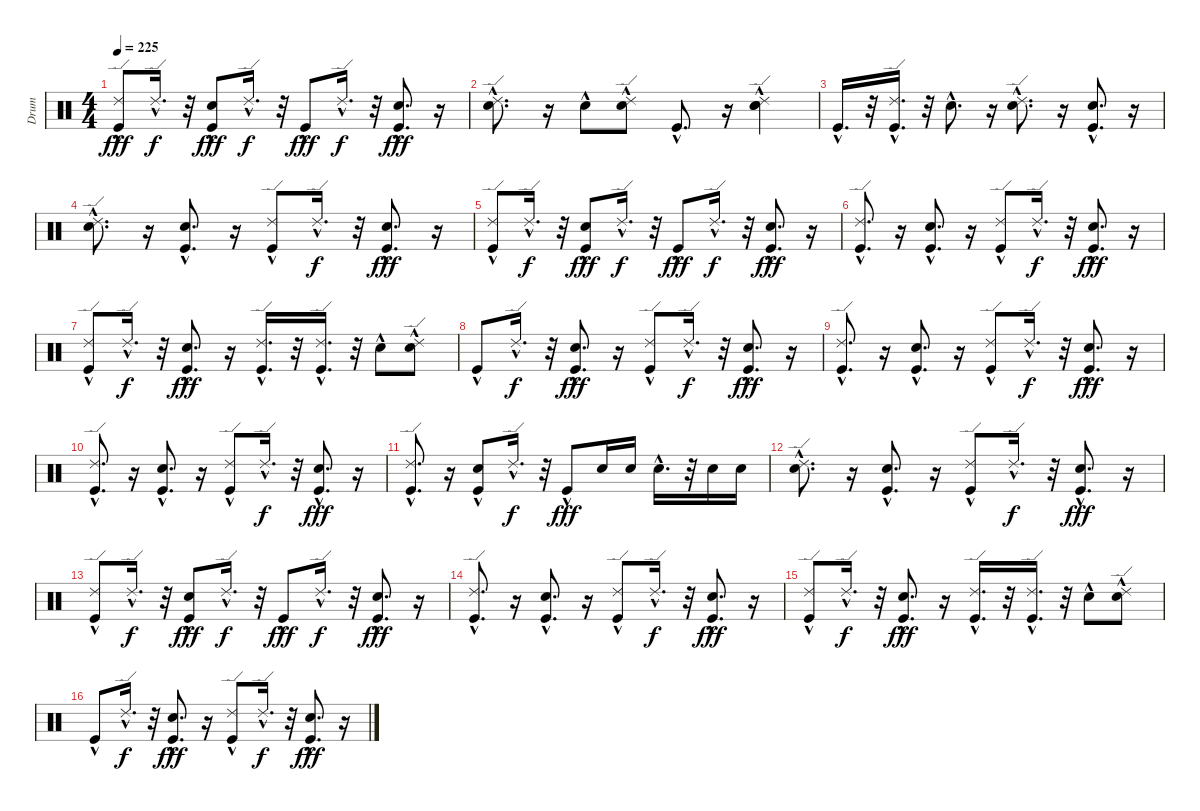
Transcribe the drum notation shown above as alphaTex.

\track ("Drum" "Drum") {instrument percussion}
\staff {score}
\articulation defaults
\ts (4 4)
\tempo 225
\clef neutral
\ks c
("Kick (hit)"{hac} "Ride (edge) 2"{hac}).8{dy fff} "Ride (edge) 2"{hac}.16{d dy f} r.32 ("Kick (hit)"{hac} "Electric Snare (hit)"{hac}).8{dy fff} "Ride (edge) 2"{hac}.16{d dy f} r.32 "Kick (hit)"{hac}.8{dy fff} "Ride (edge) 2"{hac}.16{d dy f} r.32 ("Kick (hit)"{hac} "Electric Snare (hit)"{hac}).8{d dy fff} r.16 |
("Snare (hit) 2"{hac} "Ride (edge) 2"{hac}).8{d} r.16 "Electric Snare (hit)"{hac}.8 ("Snare (hit) 2" "Ride (edge) 2"{hac}).8 "Kick (hit)"{hac}.8{d} r.16 ("Snare (hit) 2" "Electric Snare (hit)"{hac} "Ride (edge) 2"{hac}).4 |
"Kick (hit)"{hac}.16{d} r.32 ("Kick (hit)"{hac} "Ride (edge) 2"{hac}).16{d} r.32 "Electric Snare (hit)"{hac}.8{d} r.16 ("Snare (hit) 2"{hac} "Ride (edge) 2"{hac}).8{d} r.16 ("Kick (hit)"{hac} "Electric Snare (hit)"{hac}).8{d} r.16 |
("Snare (hit) 2"{hac} "Ride (edge) 2"{hac}).8{d} r.16 ("Kick (hit)"{hac} "Electric Snare (hit)"{hac}).8{d} r.16 ("Kick (hit)"{hac} "Ride (edge) 2"{hac}).8 "Ride (edge) 2"{hac}.16{d dy f} r.32 ("Kick (hit)"{hac} "Electric Snare (hit)"{hac}).8{d dy fff} r.16 |
("Kick (hit)"{hac} "Ride (edge) 2"{hac}).8 "Ride (edge) 2"{hac}.16{d dy f} r.32 ("Kick (hit)"{hac} "Electric Snare (hit)"{hac}).8{dy fff} "Ride (edge) 2"{hac}.16{d dy f} r.32 "Kick (hit)"{hac}.8{dy fff} "Ride (edge) 2"{hac}.16{d dy f} r.32 ("Kick (hit)"{hac} "Electric Snare (hit)"{hac}).8{d dy fff} r.16 |
("Kick (hit)"{hac} "Ride (edge) 2"{hac}).8{d} r.16 ("Kick (hit)"{hac} "Electric Snare (hit)"{hac}).8{d} r.16 ("Kick (hit)"{hac} "Ride (edge) 2"{hac}).8 "Ride (edge) 2"{hac}.16{d dy f} r.32 ("Kick (hit)"{hac} "Electric Snare (hit)"{hac}).8{d dy fff} r.16 |
("Kick (hit)"{hac} "Ride (edge) 2"{hac}).8 "Ride (edge) 2"{hac}.16{d dy f} r.32 ("Kick (hit)"{hac} "Electric Snare (hit)"{hac}).8{d dy fff} r.16 ("Kick (hit)"{hac} "Ride (edge) 2"{hac}).16{d} r.32 ("Kick (hit)"{hac} "Ride (edge) 2"{hac}).16{d} r.32 "Electric Snare (hit)"{hac}.8 ("Snare (hit) 2" "Ride (edge) 2"{hac}).8 |
"Kick (hit)"{hac}.8 "Ride (edge) 2"{hac}.16{d dy f} r.32 ("Kick (hit)"{hac} "Electric Snare (hit)"{hac}).8{d dy fff} r.16 ("Kick (hit)"{hac} "Ride (edge) 2"{hac}).8 "Ride (edge) 2"{hac}.16{d dy f} r.32 ("Kick (hit)"{hac} "Electric Snare (hit)"{hac}).8{d dy fff} r.16 |
("Kick (hit)"{hac} "Ride (edge) 2"{hac}).8{d} r.16 ("Kick (hit)"{hac} "Electric Snare (hit)"{hac}).8{d} r.16 ("Kick (hit)"{hac} "Ride (edge) 2"{hac}).8 "Ride (edge) 2"{hac}.16{d dy f} r.32 ("Kick (hit)"{hac} "Electric Snare (hit)"{hac}).8{d dy fff} r.16 |
("Kick (hit)"{hac} "Ride (edge) 2"{hac}).8{d} r.16 ("Kick (hit)"{hac} "Electric Snare (hit)"{hac}).8{d} r.16 ("Kick (hit)"{hac} "Ride (edge) 2"{hac}).8 "Ride (edge) 2"{hac}.16{d dy f} r.32 ("Kick (hit)"{hac} "Electric Snare (hit)"{hac}).8{d dy fff} r.16 |
("Kick (hit)"{hac} "Ride (edge) 2"{hac}).8{d} r.16 ("Kick (hit)"{hac} "Electric Snare (hit)"{hac}).8 "Ride (edge) 2"{hac}.16{d dy f} r.32 "Kick (hit)"{hac}.8{dy fff} "Electric Snare (hit)".16 "Electric Snare (hit)".16 "Electric Snare (hit)"{hac}.16{d} r.32 "Electric Snare (hit)".16 "Electric Snare (hit)".16 |
("Snare (hit) 2"{hac} "Ride (edge) 2"{hac}).8{d} r.16 ("Kick (hit)"{hac} "Electric Snare (hit)"{hac}).8{d} r.16 ("Kick (hit)"{hac} "Ride (edge) 2"{hac}).8 "Ride (edge) 2"{hac}.16{d dy f} r.32 ("Kick (hit)"{hac} "Electric Snare (hit)"{hac}).8{d dy fff} r.16 |
("Kick (hit)"{hac} "Ride (edge) 2"{hac}).8 "Ride (edge) 2"{hac}.16{d dy f} r.32 ("Kick (hit)"{hac} "Electric Snare (hit)"{hac}).8{dy fff} "Ride (edge) 2"{hac}.16{d dy f} r.32 "Kick (hit)"{hac}.8{dy fff} "Ride (edge) 2"{hac}.16{d dy f} r.32 ("Kick (hit)"{hac} "Electric Snare (hit)"{hac}).8{d dy fff} r.16 |
("Kick (hit)"{hac} "Ride (edge) 2"{hac}).8{d} r.16 ("Kick (hit)"{hac} "Electric Snare (hit)"{hac}).8{d} r.16 ("Kick (hit)"{hac} "Ride (edge) 2"{hac}).8 "Ride (edge) 2"{hac}.16{d dy f} r.32 ("Kick (hit)"{hac} "Electric Snare (hit)"{hac}).8{d dy fff} r.16 |
("Kick (hit)"{hac} "Ride (edge) 2"{hac}).8 "Ride (edge) 2"{hac}.16{d dy f} r.32 ("Kick (hit)"{hac} "Electric Snare (hit)"{hac}).8{d dy fff} r.16 ("Kick (hit)"{hac} "Ride (edge) 2"{hac}).16{d} r.32 ("Kick (hit)"{hac} "Ride (edge) 2"{hac}).16{d} r.32 "Electric Snare (hit)"{hac}.8 ("Snare (hit) 2" "Ride (edge) 2"{hac}).8 |
"Kick (hit)"{hac}.8 "Ride (edge) 2"{hac}.16{d dy f} r.32 ("Kick (hit)"{hac} "Electric Snare (hit)"{hac}).8{d dy fff} r.16 ("Kick (hit)"{hac} "Ride (edge) 2"{hac}).8 "Ride (edge) 2"{hac}.16{d dy f} r.32 ("Kick (hit)"{hac} "Electric Snare (hit)"{hac}).8{d dy fff} r.16
